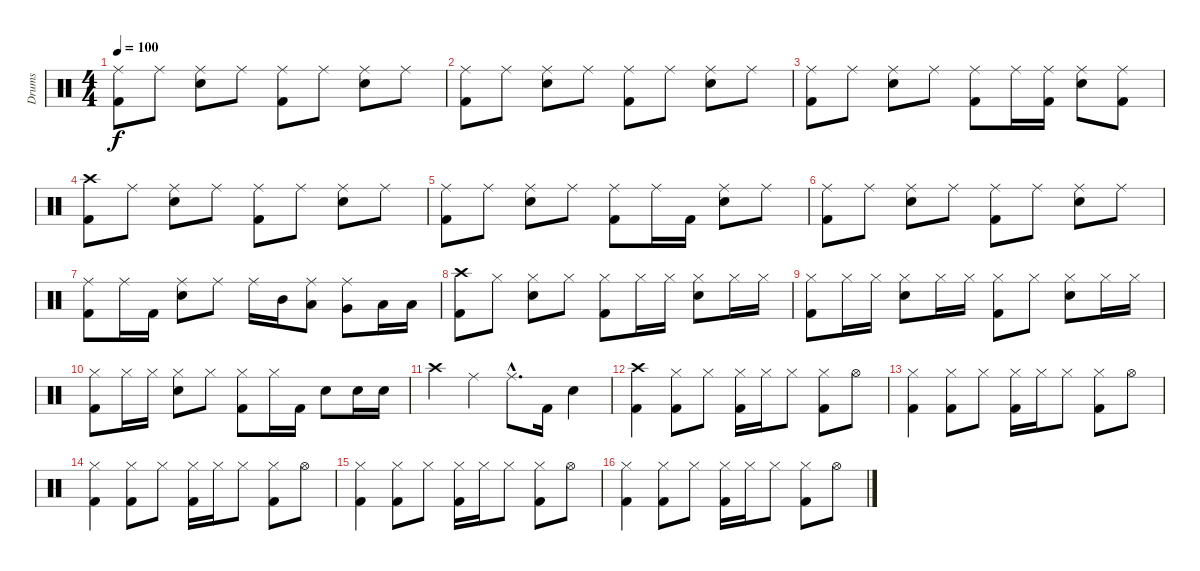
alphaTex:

\track ("Drums" "Drums") {instrument percussion}
\staff {score}
\articulation defaults
\ts (4 4)
\tempo 100
\clef neutral
\ks c
("Ride (middle)" "Kick (hit) 2").8{dy f} "Ride (middle)".8 ("Ride (middle)" "Snare (hit) 2").8 "Ride (middle)".8 ("Ride (middle)" "Kick (hit) 2").8 "Ride (middle)".8 ("Ride (middle)" "Snare (hit) 2").8 "Ride (middle)".8 |
("Ride (middle)" "Kick (hit) 2").8 "Ride (middle)".8 ("Ride (middle)" "Snare (hit) 2").8 "Ride (middle)".8 ("Ride (middle)" "Kick (hit) 2").8 "Ride (middle)".8 ("Ride (middle)" "Snare (hit) 2").8 "Ride (middle)".8 |
("Ride (middle)" "Kick (hit) 2").8 "Ride (middle)".8 ("Ride (middle)" "Snare (hit) 2").8 "Ride (middle)".8 ("Ride (middle)" "Kick (hit) 2").8 "Ride (middle)".16 ("Ride (middle)" "Kick (hit) 2").16 ("Ride (middle)" "Snare (hit) 2").8 ("Ride (middle)" "Kick (hit) 2").8 |
("Crash high (hit)" "Kick (hit) 2").8 "Ride (middle)".8 ("Ride (middle)" "Snare (hit) 2").8 "Ride (middle)".8 ("Ride (middle)" "Kick (hit) 2").8 "Ride (middle)".8 ("Ride (middle)" "Snare (hit) 2").8 "Ride (middle)".8 |
("Ride (middle)" "Kick (hit) 2").8 "Ride (middle)".8 ("Ride (middle)" "Snare (hit) 2").8 "Ride (middle)".8 ("Ride (middle)" "Kick (hit) 2").8 "Ride (middle)".16 "Kick (hit) 2".16 ("Ride (middle)" "Snare (hit) 2").8 "Ride (middle)".8 |
("Ride (middle)" "Kick (hit) 2").8 "Ride (middle)".8 ("Ride (middle)" "Snare (hit) 2").8 "Ride (middle)".8 ("Ride (middle)" "Kick (hit) 2").8 "Ride (middle)".8 ("Ride (middle)" "Snare (hit) 2").8 "Ride (middle)".8 |
("Ride (middle)" "Kick (hit) 2").8 "Ride (middle)".16 "Kick (hit) 2".16 ("Ride (middle)" "Snare (hit) 2").8 "Ride (middle)".8 "Ride (middle)".16 "Mid Tom (hit)".16 ("Ride (middle)" "Low Tom (hit)").8 ("Ride (middle)" "Very Low Tom (hit)").8 "Low Floor Tom (hit)".16 "Low Floor Tom (hit)".16 |
("Crash high (hit)" "Kick (hit) 2").8 "Hi-Hat (closed)".8 ("Hi-Hat (closed)" "Snare (hit) 2").8 "Hi-Hat (closed)".8 ("Hi-Hat (closed)" "Kick (hit) 2").8 "Hi-Hat (closed)".16 "Hi-Hat (closed)".16 ("Hi-Hat (closed)" "Snare (hit) 2").8 "Hi-Hat (closed)".16 "Hi-Hat (closed)".16 |
("Hi-Hat (closed)" "Kick (hit) 2").8 "Hi-Hat (closed)".16 "Hi-Hat (closed)".16 ("Hi-Hat (closed)" "Snare (hit) 2").8 "Hi-Hat (closed)".16 "Hi-Hat (closed)".16 ("Hi-Hat (closed)" "Kick (hit) 2").8 "Hi-Hat (closed)".8 ("Hi-Hat (closed)" "Snare (hit) 2").8 "Hi-Hat (closed)".16 "Hi-Hat (closed)".16 |
("Hi-Hat (closed)" "Kick (hit) 2").8 "Hi-Hat (closed)".16 "Hi-Hat (closed)".16 ("Hi-Hat (closed)" "Snare (hit) 2").8 "Hi-Hat (closed)".8 ("Hi-Hat (closed)" "Kick (hit) 2").8 "Hi-Hat (closed)".16 "Kick (hit) 2".16 "Snare (hit) 2".8 "Snare (hit) 2".16 "Snare (hit) 2".16 |
"Crash high (hit)".4 "Ride (middle)".4 "Ride (middle)"{hac}.8{d} "Kick (hit) 2".16 "Snare (hit) 2".4 |
("Crash high (hit)" "Kick (hit) 2").4 ("Hi-Hat (closed)" "Kick (hit) 2").8 "Hi-Hat (closed)".8 ("Hi-Hat (closed)" "Kick (hit) 2").16 "Hi-Hat (closed)".16 "Hi-Hat (closed)".8 ("Hi-Hat (closed)" "Kick (hit) 2").8 "Hi-Hat (open)".8 |
("Hi-Hat (closed)" "Kick (hit) 2").4 ("Hi-Hat (closed)" "Kick (hit) 2").8 "Hi-Hat (closed)".8 ("Hi-Hat (closed)" "Kick (hit) 2").16 "Hi-Hat (closed)".16 "Hi-Hat (closed)".8 ("Hi-Hat (closed)" "Kick (hit) 2").8 "Hi-Hat (open)".8 |
("Hi-Hat (closed)" "Kick (hit) 2").4 ("Hi-Hat (closed)" "Kick (hit) 2").8 "Hi-Hat (closed)".8 ("Hi-Hat (closed)" "Kick (hit) 2").16 "Hi-Hat (closed)".16 "Hi-Hat (closed)".8 ("Hi-Hat (closed)" "Kick (hit) 2").8 "Hi-Hat (open)".8 |
("Hi-Hat (closed)" "Kick (hit) 2").4 ("Hi-Hat (closed)" "Kick (hit) 2").8 "Hi-Hat (closed)".8 ("Hi-Hat (closed)" "Kick (hit) 2").16 "Hi-Hat (closed)".16 "Hi-Hat (closed)".8 ("Hi-Hat (closed)" "Kick (hit) 2").8 "Hi-Hat (open)".8 |
("Hi-Hat (closed)" "Kick (hit) 2").4 ("Hi-Hat (closed)" "Kick (hit) 2").8 "Hi-Hat (closed)".8 ("Hi-Hat (closed)" "Kick (hit) 2").16 "Hi-Hat (closed)".16 "Hi-Hat (closed)".8 ("Hi-Hat (closed)" "Kick (hit) 2").8 "Hi-Hat (open)".8
